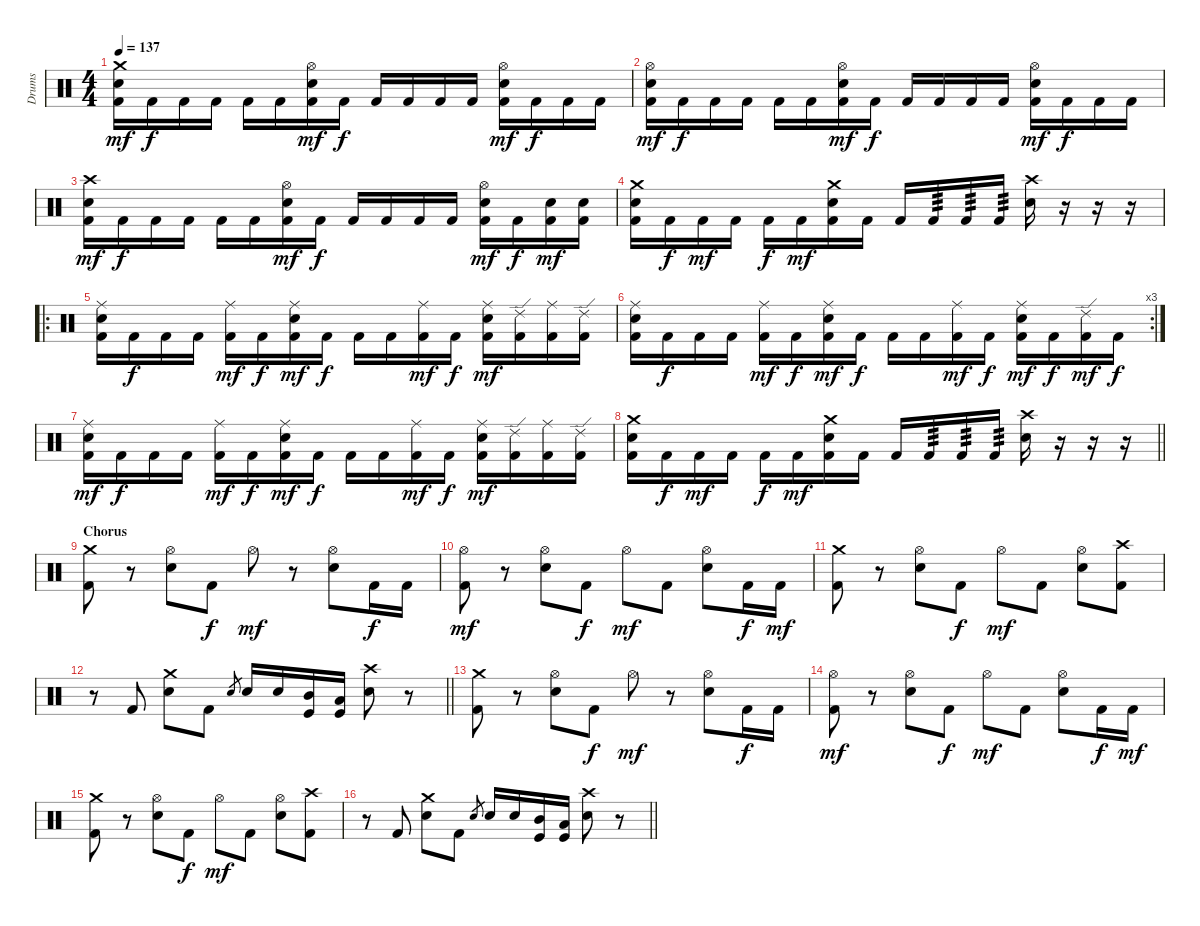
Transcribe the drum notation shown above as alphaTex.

\track ("Drums" "Drums") {instrument percussion}
\staff {score}
\articulation defaults
\ts (4 4)
\tempo 137
\clef neutral
\ks c
("Crash medium (hit)" "Electric Snare (hit)" "Kick (hit) 2").16{dy mf} "Kick (hit) 2".16{dy f} "Kick (hit) 2".16 "Kick (hit) 2".16 "Kick (hit) 2".16 "Kick (hit) 2".16 ("Hi-Hat (open)" "Electric Snare (hit)" "Kick (hit) 2").16{dy mf} "Kick (hit) 2".16{dy f} "Kick (hit) 2".16 "Kick (hit) 2".16 "Kick (hit) 2".16 "Kick (hit) 2".16 ("Hi-Hat (open)" "Electric Snare (hit)" "Kick (hit) 2").16{dy mf} "Kick (hit) 2".16{dy f} "Kick (hit) 2".16 "Kick (hit) 2".16 |
("Hi-Hat (open)" "Electric Snare (hit)" "Kick (hit) 2").16{dy mf} "Kick (hit) 2".16{dy f} "Kick (hit) 2".16 "Kick (hit) 2".16 "Kick (hit) 2".16 "Kick (hit) 2".16 ("Hi-Hat (open)" "Electric Snare (hit)" "Kick (hit) 2").16{dy mf} "Kick (hit) 2".16{dy f} "Kick (hit) 2".16 "Kick (hit) 2".16 "Kick (hit) 2".16 "Kick (hit) 2".16 ("Hi-Hat (open)" "Electric Snare (hit)" "Kick (hit) 2").16{dy mf} "Kick (hit) 2".16{dy f} "Kick (hit) 2".16 "Kick (hit) 2".16 |
("Crash high (hit)" "Electric Snare (hit)" "Kick (hit) 2").16{dy mf} "Kick (hit) 2".16{dy f} "Kick (hit) 2".16 "Kick (hit) 2".16 "Kick (hit) 2".16 "Kick (hit) 2".16 ("Hi-Hat (open)" "Electric Snare (hit)" "Kick (hit) 2").16{dy mf} "Kick (hit) 2".16{dy f} "Kick (hit) 2".16 "Kick (hit) 2".16 "Kick (hit) 2".16 "Kick (hit) 2".16 ("Hi-Hat (open)" "Electric Snare (hit)" "Kick (hit) 2").16{dy mf} "Kick (hit) 2".16{dy f} ("Electric Snare (hit)" "Kick (hit) 2").16{dy mf} ("Electric Snare (hit)" "Kick (hit) 2").16 |
("Crash medium (hit)" "Electric Snare (hit)" "Kick (hit) 2").16 "Kick (hit) 2".16{dy f} "Kick (hit) 2".16{dy mf} "Kick (hit) 2".16 "Kick (hit) 2".16{dy f} "Kick (hit) 2".16{dy mf} ("Crash medium (hit)" "Electric Snare (hit)" "Kick (hit) 2").16 "Kick (hit) 2".16 "Kick (hit) 2".16 "Kick (hit) 2".16{tp 3} "Kick (hit) 2".16{tp 3} "Kick (hit) 2".16{tp 3} ("Crash high (hit)" "Electric Snare (hit)").16 r.16 r.16 r.16 |
\ro
("Ride (middle)" "Electric Snare (hit)" "Kick (hit) 2").16 "Kick (hit) 2".16{dy f} "Kick (hit) 2".16 "Kick (hit) 2".16 ("Ride (middle)" "Kick (hit) 2").16{dy mf} "Kick (hit) 2".16{dy f} ("Ride (middle)" "Electric Snare (hit)" "Kick (hit) 2").16{dy mf} "Kick (hit) 2".16{dy f} "Kick (hit) 2".16 "Kick (hit) 2".16 ("Ride (middle)" "Kick (hit) 2").16{dy mf} "Kick (hit) 2".16{dy f} ("Ride (middle)" "Electric Snare (hit)" "Kick (hit) 2").16{dy mf} ("Ride (edge) 2" "Kick (hit) 2").16 ("Ride (middle)" "Kick (hit) 2").16 ("Ride (edge) 2" "Kick (hit) 2").16 |
\rc 3
("Ride (middle)" "Electric Snare (hit)" "Kick (hit) 2").16 "Kick (hit) 2".16{dy f} "Kick (hit) 2".16 "Kick (hit) 2".16 ("Ride (middle)" "Kick (hit) 2").16{dy mf} "Kick (hit) 2".16{dy f} ("Ride (middle)" "Electric Snare (hit)" "Kick (hit) 2").16{dy mf} "Kick (hit) 2".16{dy f} "Kick (hit) 2".16 "Kick (hit) 2".16 ("Ride (middle)" "Kick (hit) 2").16{dy mf} "Kick (hit) 2".16{dy f} ("Ride (middle)" "Electric Snare (hit)" "Kick (hit) 2").16{dy mf} "Kick (hit) 2".16{dy f} ("Ride (edge) 2" "Kick (hit) 2").16{dy mf} "Kick (hit) 2".16{dy f} |
("Ride (middle)" "Electric Snare (hit)" "Kick (hit) 2").16{dy mf} "Kick (hit) 2".16{dy f} "Kick (hit) 2".16 "Kick (hit) 2".16 ("Ride (middle)" "Kick (hit) 2").16{dy mf} "Kick (hit) 2".16{dy f} ("Ride (middle)" "Electric Snare (hit)" "Kick (hit) 2").16{dy mf} "Kick (hit) 2".16{dy f} "Kick (hit) 2".16 "Kick (hit) 2".16 ("Ride (middle)" "Kick (hit) 2").16{dy mf} "Kick (hit) 2".16{dy f} ("Ride (middle)" "Electric Snare (hit)" "Kick (hit) 2").16{dy mf} ("Ride (edge) 2" "Kick (hit) 2").16 ("Ride (middle)" "Kick (hit) 2").16 ("Ride (edge) 2" "Kick (hit) 2").16 |
\barLineRight lightlight
("Crash medium (hit)" "Electric Snare (hit)" "Kick (hit) 2").16 "Kick (hit) 2".16{dy f} "Kick (hit) 2".16{dy mf} "Kick (hit) 2".16 "Kick (hit) 2".16{dy f} "Kick (hit) 2".16{dy mf} ("Crash medium (hit)" "Electric Snare (hit)" "Kick (hit) 2").16 "Kick (hit) 2".16 "Kick (hit) 2".16 "Kick (hit) 2".16{tp 3} "Kick (hit) 2".16{tp 3} "Kick (hit) 2".16{tp 3} ("Crash high (hit)" "Electric Snare (hit)").16 r.16 r.16 r.16 |
\section ("" "Chorus")
("Crash medium (hit)" "Kick (hit) 2").8 r.8 ("Hi-Hat (open)" "Electric Snare (hit)").8 "Kick (hit) 2".8{dy f} "Hi-Hat (open)".8{dy mf} r.8 ("Hi-Hat (open)" "Electric Snare (hit)").8 "Kick (hit) 2".16{dy f} "Kick (hit) 2".16 |
("Hi-Hat (open)" "Kick (hit) 2").8{dy mf} r.8 ("Hi-Hat (open)" "Electric Snare (hit)").8 "Kick (hit) 2".8{dy f} "Hi-Hat (open)".8{dy mf} "Kick (hit) 2".8 ("Hi-Hat (open)" "Electric Snare (hit)").8 "Kick (hit) 2".16{dy f} "Kick (hit) 2".16{dy mf} |
("Crash medium (hit)" "Kick (hit) 2").8 r.8 ("Hi-Hat (open)" "Electric Snare (hit)").8 "Kick (hit) 2".8{dy f} "Hi-Hat (open)".8{dy mf} "Kick (hit) 2".8 ("Hi-Hat (open)" "Electric Snare (hit)").8 ("Crash high (hit)" "Kick (hit) 2").8 |
\barLineRight lightlight
r.8 "Kick (hit) 2".8 ("Crash medium (hit)" "Electric Snare (hit)").8 "Kick (hit) 2".8 "Electric Snare (hit)".8{gr} "Electric Snare (hit)".16 "Electric Snare (hit)".16 ("Mid Tom (hit)" "Kick (hit)").16 ("Low Tom (hit)" "Kick (hit)").16 ("Crash high (hit)" "Electric Snare (hit)").8 r.8 |
("Crash medium (hit)" "Kick (hit) 2").8 r.8 ("Hi-Hat (open)" "Electric Snare (hit)").8 "Kick (hit) 2".8{dy f} "Hi-Hat (open)".8{dy mf} r.8 ("Hi-Hat (open)" "Electric Snare (hit)").8 "Kick (hit) 2".16{dy f} "Kick (hit) 2".16 |
("Hi-Hat (open)" "Kick (hit) 2").8{dy mf} r.8 ("Hi-Hat (open)" "Electric Snare (hit)").8 "Kick (hit) 2".8{dy f} "Hi-Hat (open)".8{dy mf} "Kick (hit) 2".8 ("Hi-Hat (open)" "Electric Snare (hit)").8 "Kick (hit) 2".16{dy f} "Kick (hit) 2".16{dy mf} |
("Crash medium (hit)" "Kick (hit) 2").8 r.8 ("Hi-Hat (open)" "Electric Snare (hit)").8 "Kick (hit) 2".8{dy f} "Hi-Hat (open)".8{dy mf} "Kick (hit) 2".8 ("Hi-Hat (open)" "Electric Snare (hit)").8 ("Crash high (hit)" "Kick (hit) 2").8 |
\barLineRight lightlight
r.8 "Kick (hit) 2".8 ("Crash medium (hit)" "Electric Snare (hit)").8 "Kick (hit) 2".8 "Electric Snare (hit)".8{gr} "Electric Snare (hit)".16 "Electric Snare (hit)".16 ("Mid Tom (hit)" "Kick (hit)").16 ("Low Tom (hit)" "Kick (hit)").16 ("Crash high (hit)" "Electric Snare (hit)").8 r.8
